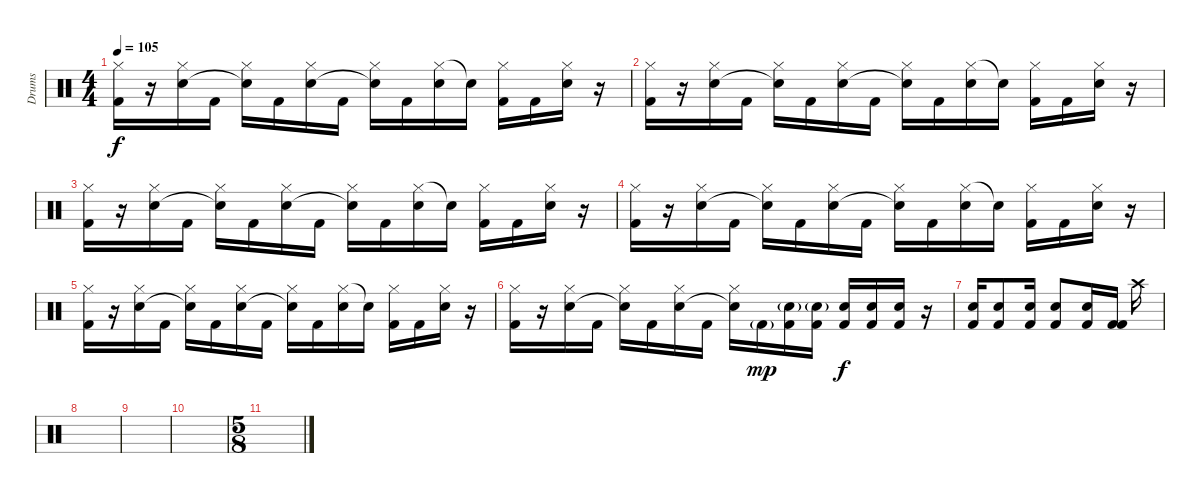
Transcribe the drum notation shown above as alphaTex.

\track ("Drums" "Drums") {instrument percussion}
\staff {score}
\articulation defaults
\ts (4 4)
\tempo 105
\clef neutral
\ks c
("Hi-Hat (closed)" "Kick (hit) 2").16{dy f} r.16 ("Hi-Hat (closed)" "Electric Snare (hit)").16 "Kick (hit) 2".16 ("Hi-Hat (closed)" "Snare (hit)"{t}).16 "Kick (hit) 2".16 ("Hi-Hat (closed)" "Electric Snare (hit)").16 "Kick (hit) 2".16 ("Hi-Hat (closed)" "Snare (hit)"{t}).16 "Kick (hit) 2".16 ("Hi-Hat (closed)" "Electric Snare (hit)").16 "Snare (hit)"{t}.16 ("Hi-Hat (closed)" "Kick (hit) 2").16 "Kick (hit) 2".16 ("Hi-Hat (closed)" "Electric Snare (hit)").16 r.16 |
("Hi-Hat (closed)" "Kick (hit) 2").16 r.16 ("Hi-Hat (closed)" "Electric Snare (hit)").16 "Kick (hit) 2".16 ("Hi-Hat (closed)" "Snare (hit)"{t}).16 "Kick (hit) 2".16 ("Hi-Hat (closed)" "Electric Snare (hit)").16 "Kick (hit) 2".16 ("Hi-Hat (closed)" "Snare (hit)"{t}).16 "Kick (hit) 2".16 ("Hi-Hat (closed)" "Electric Snare (hit)").16 "Snare (hit)"{t}.16 ("Hi-Hat (closed)" "Kick (hit) 2").16 "Kick (hit) 2".16 ("Hi-Hat (closed)" "Electric Snare (hit)").16 r.16 |
("Hi-Hat (closed)" "Kick (hit) 2").16 r.16 ("Hi-Hat (closed)" "Electric Snare (hit)").16 "Kick (hit) 2".16 ("Hi-Hat (closed)" "Snare (hit)"{t}).16 "Kick (hit) 2".16 ("Hi-Hat (closed)" "Electric Snare (hit)").16 "Kick (hit) 2".16 ("Hi-Hat (closed)" "Snare (hit)"{t}).16 "Kick (hit) 2".16 ("Hi-Hat (closed)" "Electric Snare (hit)").16 "Snare (hit)"{t}.16 ("Hi-Hat (closed)" "Kick (hit) 2").16 "Kick (hit) 2".16 ("Hi-Hat (closed)" "Electric Snare (hit)").16 r.16 |
("Hi-Hat (closed)" "Kick (hit) 2").16 r.16 ("Hi-Hat (closed)" "Electric Snare (hit)").16 "Kick (hit) 2".16 ("Hi-Hat (closed)" "Snare (hit)"{t}).16 "Kick (hit) 2".16 ("Hi-Hat (closed)" "Electric Snare (hit)").16 "Kick (hit) 2".16 ("Hi-Hat (closed)" "Snare (hit)"{t}).16 "Kick (hit) 2".16 ("Hi-Hat (closed)" "Electric Snare (hit)").16 "Snare (hit)"{t}.16 ("Hi-Hat (closed)" "Kick (hit) 2").16 "Kick (hit) 2".16 ("Hi-Hat (closed)" "Electric Snare (hit)").16 r.16 |
("Hi-Hat (closed)" "Kick (hit) 2").16 r.16 ("Hi-Hat (closed)" "Electric Snare (hit)").16 "Kick (hit) 2".16 ("Hi-Hat (closed)" "Snare (hit)"{t}).16 "Kick (hit) 2".16 ("Hi-Hat (closed)" "Electric Snare (hit)").16 "Kick (hit) 2".16 ("Hi-Hat (closed)" "Snare (hit)"{t}).16 "Kick (hit) 2".16 ("Hi-Hat (closed)" "Electric Snare (hit)").16 "Snare (hit)"{t}.16 ("Hi-Hat (closed)" "Kick (hit) 2").16 "Kick (hit) 2".16 ("Hi-Hat (closed)" "Electric Snare (hit)").16 r.16 |
("Hi-Hat (closed)" "Kick (hit) 2").16 r.16 ("Hi-Hat (closed)" "Electric Snare (hit)").16 "Kick (hit) 2".16 ("Hi-Hat (closed)" "Snare (hit)"{t}).16 "Kick (hit) 2".16 ("Hi-Hat (closed)" "Electric Snare (hit)").16 "Kick (hit) 2".16 ("Hi-Hat (closed)" "Snare (hit)"{t}).16 "Kick (hit) 2"{g}.16{dy mp} ("Electric Snare (hit)"{g} "Kick (hit) 2").16 ("Electric Snare (hit)"{g} "Kick (hit) 2").16 ("Electric Snare (hit)" "Kick (hit) 2").16{dy f} ("Electric Snare (hit)" "Kick (hit) 2").16 ("Electric Snare (hit)" "Kick (hit) 2").16 r.16 |
("Electric Snare (hit)" "Kick (hit) 2").16 ("Electric Snare (hit)" "Kick (hit) 2").8 ("Electric Snare (hit)" "Kick (hit) 2").16 ("Kick (hit) 2" "Electric Snare (hit)").8 ("Electric Snare (hit)" "Kick (hit) 2").16 ("Kick (hit) 2" "Kick (hit) 2").16 "Crash high (hit)".16 |
|
|
|
\ts (5 8)
